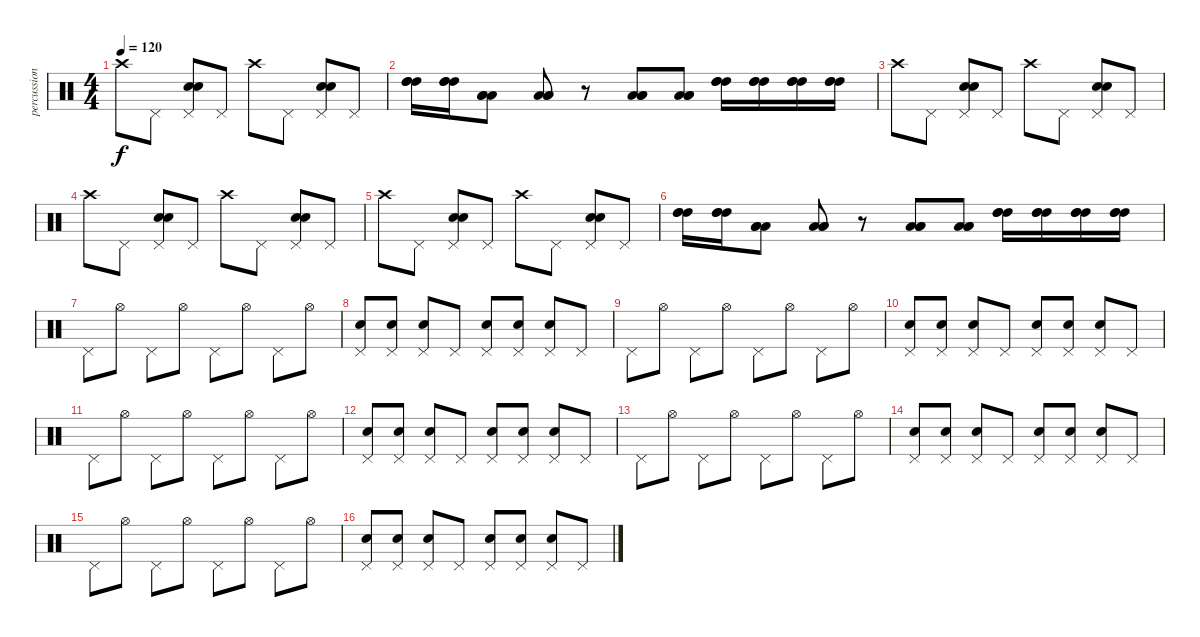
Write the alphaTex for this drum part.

\track ("percussion" "percussion") {instrument percussion}
\staff {score}
\articulation defaults
\ts (4 4)
\tempo 120
\clef neutral
\ks c "Crash high (hit)".8{dy f} "Pedal Hi-Hat (hit)".8
("Pedal Hi-Hat (hit)" "Snare (hit) 2" "Snare (hit) 2").8 "Pedal Hi-Hat (hit)".8 "Crash high (hit)".8 "Pedal Hi-Hat (hit)".8 ("Pedal Hi-Hat (hit)" "Snare (hit) 2" "Snare (hit) 2").8 "Pedal Hi-Hat (hit)".8 |
("High Tom (hit)" "High Tom (hit)" "High Tom (hit)").16 ("High Tom (hit)" "High Tom (hit)" "High Tom (hit)").16 ("Low Tom (hit)" "Low Tom (hit)" "Low Tom (hit)").8 ("Low Tom (hit)" "Low Tom (hit)" "Low Tom (hit)").8 r.8 ("Low Tom (hit)" "Low Tom (hit)" "Low Tom (hit)").8 ("Low Tom (hit)" "Low Tom (hit)" "Low Tom (hit)").8 ("High Tom (hit)" "High Tom (hit)" "High Tom (hit)").16 ("High Tom (hit)" "High Tom (hit)" "High Tom (hit)").16 ("High Tom (hit)" "High Tom (hit)" "High Tom (hit)").16 ("High Tom (hit)" "High Tom (hit)" "High Tom (hit)").16 |
"Crash high (hit)".8 "Pedal Hi-Hat (hit)".8 ("Pedal Hi-Hat (hit)" "Snare (hit) 2" "Snare (hit) 2").8 "Pedal Hi-Hat (hit)".8 "Crash high (hit)".8 "Pedal Hi-Hat (hit)".8 ("Pedal Hi-Hat (hit)" "Snare (hit) 2" "Snare (hit) 2").8 "Pedal Hi-Hat (hit)".8 |
"Crash high (hit)".8 "Pedal Hi-Hat (hit)".8 ("Pedal Hi-Hat (hit)" "Snare (hit) 2" "Snare (hit) 2").8 "Pedal Hi-Hat (hit)".8 "Crash high (hit)".8 "Pedal Hi-Hat (hit)".8 ("Pedal Hi-Hat (hit)" "Snare (hit) 2" "Snare (hit) 2").8 "Pedal Hi-Hat (hit)".8 |
"Crash high (hit)".8 "Pedal Hi-Hat (hit)".8 ("Pedal Hi-Hat (hit)" "Snare (hit) 2" "Snare (hit) 2").8 "Pedal Hi-Hat (hit)".8 "Crash high (hit)".8 "Pedal Hi-Hat (hit)".8 ("Pedal Hi-Hat (hit)" "Snare (hit) 2" "Snare (hit) 2").8 "Pedal Hi-Hat (hit)".8 |
("High Tom (hit)" "High Tom (hit)" "High Tom (hit)").16 ("High Tom (hit)" "High Tom (hit)" "High Tom (hit)").16 ("Low Tom (hit)" "Low Tom (hit)" "Low Tom (hit)").8 ("Low Tom (hit)" "Low Tom (hit)" "Low Tom (hit)").8 r.8 ("Low Tom (hit)" "Low Tom (hit)" "Low Tom (hit)").8 ("Low Tom (hit)" "Low Tom (hit)" "Low Tom (hit)").8 ("High Tom (hit)" "High Tom (hit)" "High Tom (hit)").16 ("High Tom (hit)" "High Tom (hit)" "High Tom (hit)").16 ("High Tom (hit)" "High Tom (hit)" "High Tom (hit)").16 ("High Tom (hit)" "High Tom (hit)" "High Tom (hit)").16 |
"Pedal Hi-Hat (hit)".8 "Hi-Hat (open)".8 "Pedal Hi-Hat (hit)".8 "Hi-Hat (open)".8 "Pedal Hi-Hat (hit)".8 "Hi-Hat (open)".8 "Pedal Hi-Hat (hit)".8 "Hi-Hat (open)".8 |
("Snare (hit) 2" "Pedal Hi-Hat (hit)").8 ("Snare (hit) 2" "Pedal Hi-Hat (hit)").8 ("Snare (hit) 2" "Pedal Hi-Hat (hit)").8 "Pedal Hi-Hat (hit)".8 ("Snare (hit) 2" "Pedal Hi-Hat (hit)").8 ("Snare (hit) 2" "Pedal Hi-Hat (hit)").8 ("Snare (hit) 2" "Pedal Hi-Hat (hit)").8 "Pedal Hi-Hat (hit)".8 |
"Pedal Hi-Hat (hit)".8 "Hi-Hat (open)".8 "Pedal Hi-Hat (hit)".8 "Hi-Hat (open)".8 "Pedal Hi-Hat (hit)".8 "Hi-Hat (open)".8 "Pedal Hi-Hat (hit)".8 "Hi-Hat (open)".8 |
("Snare (hit) 2" "Pedal Hi-Hat (hit)").8 ("Snare (hit) 2" "Pedal Hi-Hat (hit)").8 ("Snare (hit) 2" "Pedal Hi-Hat (hit)").8 "Pedal Hi-Hat (hit)".8 ("Snare (hit) 2" "Pedal Hi-Hat (hit)").8 ("Snare (hit) 2" "Pedal Hi-Hat (hit)").8 ("Snare (hit) 2" "Pedal Hi-Hat (hit)").8 "Pedal Hi-Hat (hit)".8 |
"Pedal Hi-Hat (hit)".8 "Hi-Hat (open)".8 "Pedal Hi-Hat (hit)".8 "Hi-Hat (open)".8 "Pedal Hi-Hat (hit)".8 "Hi-Hat (open)".8 "Pedal Hi-Hat (hit)".8 "Hi-Hat (open)".8 |
("Snare (hit) 2" "Pedal Hi-Hat (hit)").8 ("Snare (hit) 2" "Pedal Hi-Hat (hit)").8 ("Snare (hit) 2" "Pedal Hi-Hat (hit)").8 "Pedal Hi-Hat (hit)".8 ("Snare (hit) 2" "Pedal Hi-Hat (hit)").8 ("Snare (hit) 2" "Pedal Hi-Hat (hit)").8 ("Snare (hit) 2" "Pedal Hi-Hat (hit)").8 "Pedal Hi-Hat (hit)".8 |
"Pedal Hi-Hat (hit)".8 "Hi-Hat (open)".8 "Pedal Hi-Hat (hit)".8 "Hi-Hat (open)".8 "Pedal Hi-Hat (hit)".8 "Hi-Hat (open)".8 "Pedal Hi-Hat (hit)".8 "Hi-Hat (open)".8 |
("Snare (hit) 2" "Pedal Hi-Hat (hit)").8 ("Snare (hit) 2" "Pedal Hi-Hat (hit)").8 ("Snare (hit) 2" "Pedal Hi-Hat (hit)").8 "Pedal Hi-Hat (hit)".8 ("Snare (hit) 2" "Pedal Hi-Hat (hit)").8 ("Snare (hit) 2" "Pedal Hi-Hat (hit)").8 ("Snare (hit) 2" "Pedal Hi-Hat (hit)").8 "Pedal Hi-Hat (hit)".8 |
"Pedal Hi-Hat (hit)".8 "Hi-Hat (open)".8 "Pedal Hi-Hat (hit)".8 "Hi-Hat (open)".8 "Pedal Hi-Hat (hit)".8 "Hi-Hat (open)".8 "Pedal Hi-Hat (hit)".8 "Hi-Hat (open)".8 |
("Snare (hit) 2" "Pedal Hi-Hat (hit)").8 ("Snare (hit) 2" "Pedal Hi-Hat (hit)").8 ("Snare (hit) 2" "Pedal Hi-Hat (hit)").8 "Pedal Hi-Hat (hit)".8 ("Snare (hit) 2" "Pedal Hi-Hat (hit)").8 ("Snare (hit) 2" "Pedal Hi-Hat (hit)").8 ("Snare (hit) 2" "Pedal Hi-Hat (hit)").8 "Pedal Hi-Hat (hit)".8
